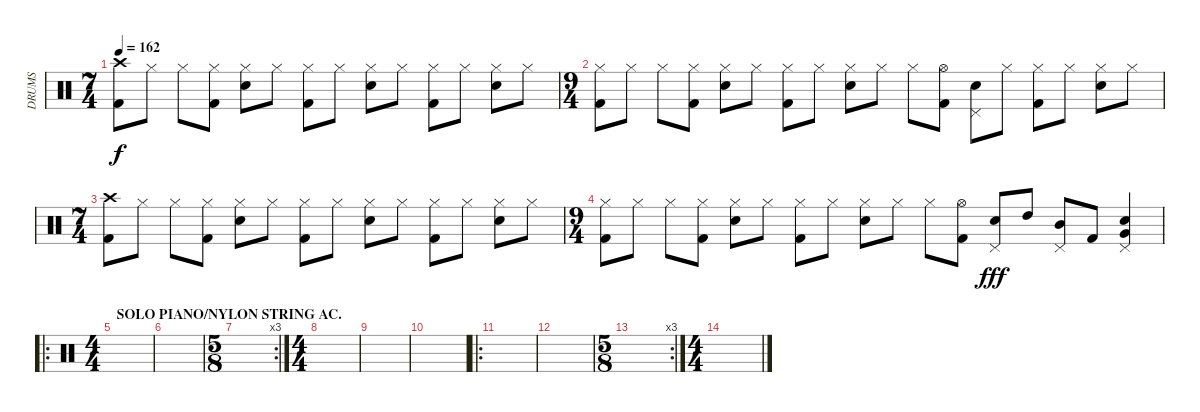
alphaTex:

\track ("DRUMS" "DRUMS") {instrument percussion}
\staff {score}
\articulation defaults
\ts (7 4)
\tempo 162
\clef neutral
\ks c
("Crash high (hit)" "Kick (hit) 2").8{dy f} "Hi-Hat (closed)".8 "Hi-Hat (closed)".8 ("Hi-Hat (closed)" "Kick (hit) 2").8 ("Hi-Hat (closed)" "Electric Snare (hit)").8 "Hi-Hat (closed)".8 ("Hi-Hat (closed)" "Kick (hit) 2").8 "Hi-Hat (closed)".8 ("Hi-Hat (closed)" "Electric Snare (hit)").8 "Hi-Hat (closed)".8 ("Hi-Hat (closed)" "Kick (hit) 2").8 "Hi-Hat (closed)".8 ("Hi-Hat (closed)" "Electric Snare (hit)").8 "Hi-Hat (closed)".8 |
\ts (9 4)
("Hi-Hat (closed)" "Kick (hit) 2").8 "Hi-Hat (closed)".8 "Hi-Hat (closed)".8 ("Hi-Hat (closed)" "Kick (hit) 2").8 ("Hi-Hat (closed)" "Electric Snare (hit)").8 "Hi-Hat (closed)".8 ("Hi-Hat (closed)" "Kick (hit) 2").8 "Hi-Hat (closed)".8 ("Hi-Hat (closed)" "Electric Snare (hit)").8 "Hi-Hat (closed)".8 "Hi-Hat (closed)".8 ("Hi-Hat (open)" "Kick (hit) 2").8 ("Electric Snare (hit)" "Pedal Hi-Hat (hit)").8 "Hi-Hat (closed)".8 ("Hi-Hat (closed)" "Kick (hit) 2").8 "Hi-Hat (closed)".8 ("Hi-Hat (closed)" "Electric Snare (hit)").8 "Hi-Hat (closed)".8 |
\ts (7 4)
("Crash high (hit)" "Kick (hit) 2").8 "Hi-Hat (closed)".8 "Hi-Hat (closed)".8 ("Hi-Hat (closed)" "Kick (hit) 2").8 ("Hi-Hat (closed)" "Electric Snare (hit)").8 "Hi-Hat (closed)".8 ("Hi-Hat (closed)" "Kick (hit) 2").8 "Hi-Hat (closed)".8 ("Hi-Hat (closed)" "Electric Snare (hit)").8 "Hi-Hat (closed)".8 ("Hi-Hat (closed)" "Kick (hit) 2").8 "Hi-Hat (closed)".8 ("Hi-Hat (closed)" "Electric Snare (hit)").8 "Hi-Hat (closed)".8 |
\ts (9 4)
("Hi-Hat (closed)" "Kick (hit) 2").8 "Hi-Hat (closed)".8 "Hi-Hat (closed)".8 ("Hi-Hat (closed)" "Kick (hit) 2").8 ("Hi-Hat (closed)" "Electric Snare (hit)").8 "Hi-Hat (closed)".8 ("Hi-Hat (closed)" "Kick (hit) 2").8 "Hi-Hat (closed)".8 ("Hi-Hat (closed)" "Electric Snare (hit)").8 "Hi-Hat (closed)".8 "Hi-Hat (closed)".8 ("Hi-Hat (open)" "Kick (hit) 2").8 ("Electric Snare (hit)" "Pedal Hi-Hat (hit)").8{dy fff} "High Tom (hit)".8 ("Mid Tom (hit)" "Pedal Hi-Hat (hit)").8 "Kick (hit) 2".8 ("Electric Snare (hit)" "Very Low Tom (hit)" "Pedal Hi-Hat (hit)").4 |
\ro
\ts (4 4)
\section ("" "SOLO PIANO/NYLON STRING AC.")
|
|
\rc 3
\ts (5 8)
|
\ts (4 4)
|
|
|
\ro
|
|
\rc 3
\ts (5 8)
|
\ts (4 4)
